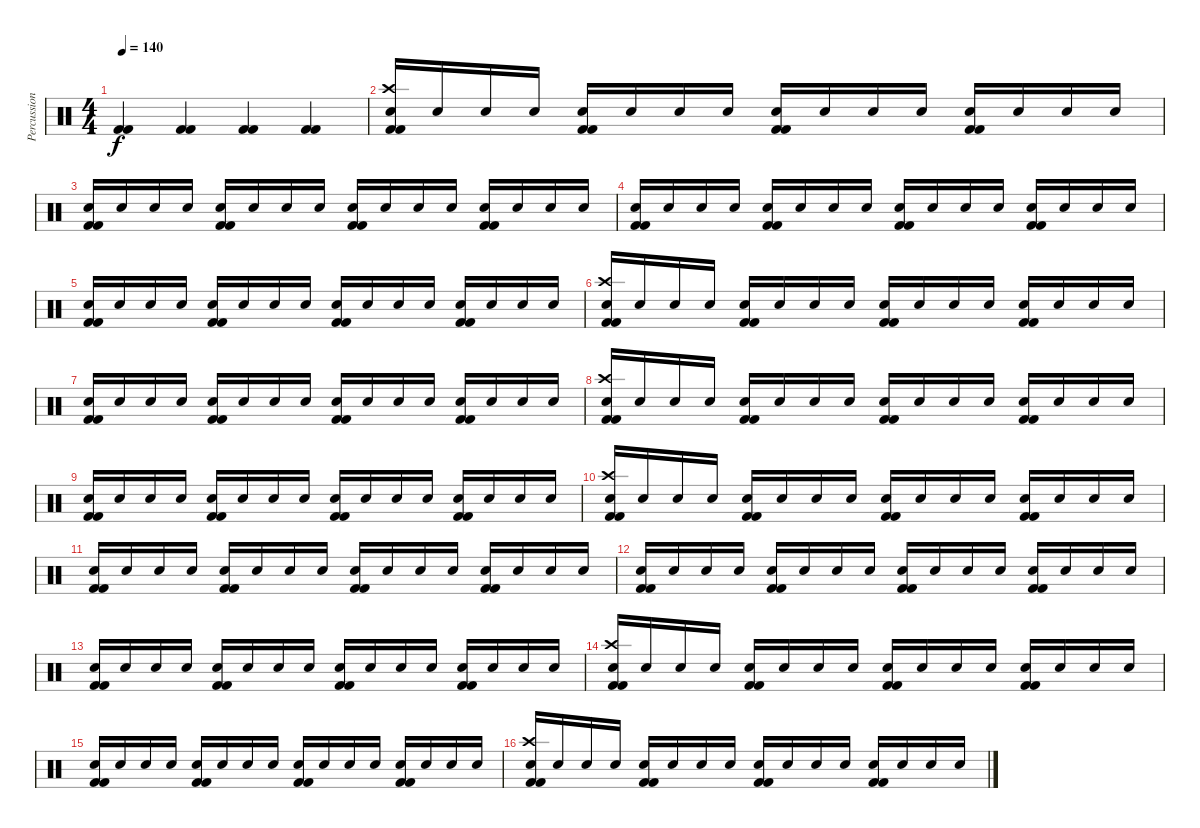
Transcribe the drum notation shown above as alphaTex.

\track ("Percussion" "Percussion") {instrument percussion}
\staff {score}
\articulation defaults
\ts (4 4)
\tempo 140
\clef neutral
\ks c
("Kick (hit) 2" "Kick (hit) 2").4{dy f} ("Kick (hit) 2" "Kick (hit) 2").4 ("Kick (hit) 2" "Kick (hit) 2").4 ("Kick (hit) 2" "Kick (hit) 2").4 |
("Crash high (hit)" "Electric Snare (hit)" "Kick (hit) 2" "Kick (hit) 2").16 "Electric Snare (hit)".16 "Electric Snare (hit)".16 "Electric Snare (hit)".16 ("Electric Snare (hit)" "Kick (hit) 2" "Kick (hit) 2").16 "Electric Snare (hit)".16 "Electric Snare (hit)".16 "Electric Snare (hit)".16 ("Electric Snare (hit)" "Kick (hit) 2" "Kick (hit) 2").16 "Electric Snare (hit)".16 "Electric Snare (hit)".16 "Electric Snare (hit)".16 ("Electric Snare (hit)" "Kick (hit) 2" "Kick (hit) 2").16 "Electric Snare (hit)".16 "Electric Snare (hit)".16 "Electric Snare (hit)".16 |
("Electric Snare (hit)" "Kick (hit) 2" "Kick (hit) 2").16 "Electric Snare (hit)".16 "Electric Snare (hit)".16 "Electric Snare (hit)".16 ("Electric Snare (hit)" "Kick (hit) 2" "Kick (hit) 2").16 "Electric Snare (hit)".16 "Electric Snare (hit)".16 "Electric Snare (hit)".16 ("Electric Snare (hit)" "Kick (hit) 2" "Kick (hit) 2").16 "Electric Snare (hit)".16 "Electric Snare (hit)".16 "Electric Snare (hit)".16 ("Electric Snare (hit)" "Kick (hit) 2" "Kick (hit) 2").16 "Electric Snare (hit)".16 "Electric Snare (hit)".16 "Electric Snare (hit)".16 |
("Electric Snare (hit)" "Kick (hit) 2" "Kick (hit) 2").16 "Electric Snare (hit)".16 "Electric Snare (hit)".16 "Electric Snare (hit)".16 ("Electric Snare (hit)" "Kick (hit) 2" "Kick (hit) 2").16 "Electric Snare (hit)".16 "Electric Snare (hit)".16 "Electric Snare (hit)".16 ("Electric Snare (hit)" "Kick (hit) 2" "Kick (hit) 2").16 "Electric Snare (hit)".16 "Electric Snare (hit)".16 "Electric Snare (hit)".16 ("Electric Snare (hit)" "Kick (hit) 2" "Kick (hit) 2").16 "Electric Snare (hit)".16 "Electric Snare (hit)".16 "Electric Snare (hit)".16 |
("Electric Snare (hit)" "Kick (hit) 2" "Kick (hit) 2").16 "Electric Snare (hit)".16 "Electric Snare (hit)".16 "Electric Snare (hit)".16 ("Electric Snare (hit)" "Kick (hit) 2" "Kick (hit) 2").16 "Electric Snare (hit)".16 "Electric Snare (hit)".16 "Electric Snare (hit)".16 ("Electric Snare (hit)" "Kick (hit) 2" "Kick (hit) 2").16 "Electric Snare (hit)".16 "Electric Snare (hit)".16 "Electric Snare (hit)".16 ("Electric Snare (hit)" "Kick (hit) 2" "Kick (hit) 2").16 "Electric Snare (hit)".16 "Electric Snare (hit)".16 "Electric Snare (hit)".16 |
("Crash high (hit)" "Electric Snare (hit)" "Kick (hit) 2" "Kick (hit) 2").16 "Electric Snare (hit)".16 "Electric Snare (hit)".16 "Electric Snare (hit)".16 ("Electric Snare (hit)" "Kick (hit) 2" "Kick (hit) 2").16 "Electric Snare (hit)".16 "Electric Snare (hit)".16 "Electric Snare (hit)".16 ("Electric Snare (hit)" "Kick (hit) 2" "Kick (hit) 2").16 "Electric Snare (hit)".16 "Electric Snare (hit)".16 "Electric Snare (hit)".16 ("Electric Snare (hit)" "Kick (hit) 2" "Kick (hit) 2").16 "Electric Snare (hit)".16 "Electric Snare (hit)".16 "Electric Snare (hit)".16 |
("Electric Snare (hit)" "Kick (hit) 2" "Kick (hit) 2").16 "Electric Snare (hit)".16 "Electric Snare (hit)".16 "Electric Snare (hit)".16 ("Electric Snare (hit)" "Kick (hit) 2" "Kick (hit) 2").16 "Electric Snare (hit)".16 "Electric Snare (hit)".16 "Electric Snare (hit)".16 ("Electric Snare (hit)" "Kick (hit) 2" "Kick (hit) 2").16 "Electric Snare (hit)".16 "Electric Snare (hit)".16 "Electric Snare (hit)".16 ("Electric Snare (hit)" "Kick (hit) 2" "Kick (hit) 2").16 "Electric Snare (hit)".16 "Electric Snare (hit)".16 "Electric Snare (hit)".16 |
("Crash high (hit)" "Electric Snare (hit)" "Kick (hit) 2" "Kick (hit) 2").16 "Electric Snare (hit)".16 "Electric Snare (hit)".16 "Electric Snare (hit)".16 ("Electric Snare (hit)" "Kick (hit) 2" "Kick (hit) 2").16 "Electric Snare (hit)".16 "Electric Snare (hit)".16 "Electric Snare (hit)".16 ("Electric Snare (hit)" "Kick (hit) 2" "Kick (hit) 2").16 "Electric Snare (hit)".16 "Electric Snare (hit)".16 "Electric Snare (hit)".16 ("Electric Snare (hit)" "Kick (hit) 2" "Kick (hit) 2").16 "Electric Snare (hit)".16 "Electric Snare (hit)".16 "Electric Snare (hit)".16 |
("Electric Snare (hit)" "Kick (hit) 2" "Kick (hit) 2").16 "Electric Snare (hit)".16 "Electric Snare (hit)".16 "Electric Snare (hit)".16 ("Electric Snare (hit)" "Kick (hit) 2" "Kick (hit) 2").16 "Electric Snare (hit)".16 "Electric Snare (hit)".16 "Electric Snare (hit)".16 ("Electric Snare (hit)" "Kick (hit) 2" "Kick (hit) 2").16 "Electric Snare (hit)".16 "Electric Snare (hit)".16 "Electric Snare (hit)".16 ("Electric Snare (hit)" "Kick (hit) 2" "Kick (hit) 2").16 "Electric Snare (hit)".16 "Electric Snare (hit)".16 "Electric Snare (hit)".16 |
("Crash high (hit)" "Electric Snare (hit)" "Kick (hit) 2" "Kick (hit) 2").16 "Electric Snare (hit)".16 "Electric Snare (hit)".16 "Electric Snare (hit)".16 ("Electric Snare (hit)" "Kick (hit) 2" "Kick (hit) 2").16 "Electric Snare (hit)".16 "Electric Snare (hit)".16 "Electric Snare (hit)".16 ("Electric Snare (hit)" "Kick (hit) 2" "Kick (hit) 2").16 "Electric Snare (hit)".16 "Electric Snare (hit)".16 "Electric Snare (hit)".16 ("Electric Snare (hit)" "Kick (hit) 2" "Kick (hit) 2").16 "Electric Snare (hit)".16 "Electric Snare (hit)".16 "Electric Snare (hit)".16 |
("Electric Snare (hit)" "Kick (hit) 2" "Kick (hit) 2").16 "Electric Snare (hit)".16 "Electric Snare (hit)".16 "Electric Snare (hit)".16 ("Electric Snare (hit)" "Kick (hit) 2" "Kick (hit) 2").16 "Electric Snare (hit)".16 "Electric Snare (hit)".16 "Electric Snare (hit)".16 ("Electric Snare (hit)" "Kick (hit) 2" "Kick (hit) 2").16 "Electric Snare (hit)".16 "Electric Snare (hit)".16 "Electric Snare (hit)".16 ("Electric Snare (hit)" "Kick (hit) 2" "Kick (hit) 2").16 "Electric Snare (hit)".16 "Electric Snare (hit)".16 "Electric Snare (hit)".16 |
("Electric Snare (hit)" "Kick (hit) 2" "Kick (hit) 2").16 "Electric Snare (hit)".16 "Electric Snare (hit)".16 "Electric Snare (hit)".16 ("Electric Snare (hit)" "Kick (hit) 2" "Kick (hit) 2").16 "Electric Snare (hit)".16 "Electric Snare (hit)".16 "Electric Snare (hit)".16 ("Electric Snare (hit)" "Kick (hit) 2" "Kick (hit) 2").16 "Electric Snare (hit)".16 "Electric Snare (hit)".16 "Electric Snare (hit)".16 ("Electric Snare (hit)" "Kick (hit) 2" "Kick (hit) 2").16 "Electric Snare (hit)".16 "Electric Snare (hit)".16 "Electric Snare (hit)".16 |
("Electric Snare (hit)" "Kick (hit) 2" "Kick (hit) 2").16 "Electric Snare (hit)".16 "Electric Snare (hit)".16 "Electric Snare (hit)".16 ("Electric Snare (hit)" "Kick (hit) 2" "Kick (hit) 2").16 "Electric Snare (hit)".16 "Electric Snare (hit)".16 "Electric Snare (hit)".16 ("Electric Snare (hit)" "Kick (hit) 2" "Kick (hit) 2").16 "Electric Snare (hit)".16 "Electric Snare (hit)".16 "Electric Snare (hit)".16 ("Electric Snare (hit)" "Kick (hit) 2" "Kick (hit) 2").16 "Electric Snare (hit)".16 "Electric Snare (hit)".16 "Electric Snare (hit)".16 |
("Crash high (hit)" "Electric Snare (hit)" "Kick (hit) 2" "Kick (hit) 2").16 "Electric Snare (hit)".16 "Electric Snare (hit)".16 "Electric Snare (hit)".16 ("Electric Snare (hit)" "Kick (hit) 2" "Kick (hit) 2").16 "Electric Snare (hit)".16 "Electric Snare (hit)".16 "Electric Snare (hit)".16 ("Electric Snare (hit)" "Kick (hit) 2" "Kick (hit) 2").16 "Electric Snare (hit)".16 "Electric Snare (hit)".16 "Electric Snare (hit)".16 ("Electric Snare (hit)" "Kick (hit) 2" "Kick (hit) 2").16 "Electric Snare (hit)".16 "Electric Snare (hit)".16 "Electric Snare (hit)".16 |
("Electric Snare (hit)" "Kick (hit) 2" "Kick (hit) 2").16 "Electric Snare (hit)".16 "Electric Snare (hit)".16 "Electric Snare (hit)".16 ("Electric Snare (hit)" "Kick (hit) 2" "Kick (hit) 2").16 "Electric Snare (hit)".16 "Electric Snare (hit)".16 "Electric Snare (hit)".16 ("Electric Snare (hit)" "Kick (hit) 2" "Kick (hit) 2").16 "Electric Snare (hit)".16 "Electric Snare (hit)".16 "Electric Snare (hit)".16 ("Electric Snare (hit)" "Kick (hit) 2" "Kick (hit) 2").16 "Electric Snare (hit)".16 "Electric Snare (hit)".16 "Electric Snare (hit)".16 |
("Crash high (hit)" "Electric Snare (hit)" "Kick (hit) 2" "Kick (hit) 2").16 "Electric Snare (hit)".16 "Electric Snare (hit)".16 "Electric Snare (hit)".16 ("Electric Snare (hit)" "Kick (hit) 2" "Kick (hit) 2").16 "Electric Snare (hit)".16 "Electric Snare (hit)".16 "Electric Snare (hit)".16 ("Electric Snare (hit)" "Kick (hit) 2" "Kick (hit) 2").16 "Electric Snare (hit)".16 "Electric Snare (hit)".16 "Electric Snare (hit)".16 ("Electric Snare (hit)" "Kick (hit) 2" "Kick (hit) 2").16 "Electric Snare (hit)".16 "Electric Snare (hit)".16 "Electric Snare (hit)".16
